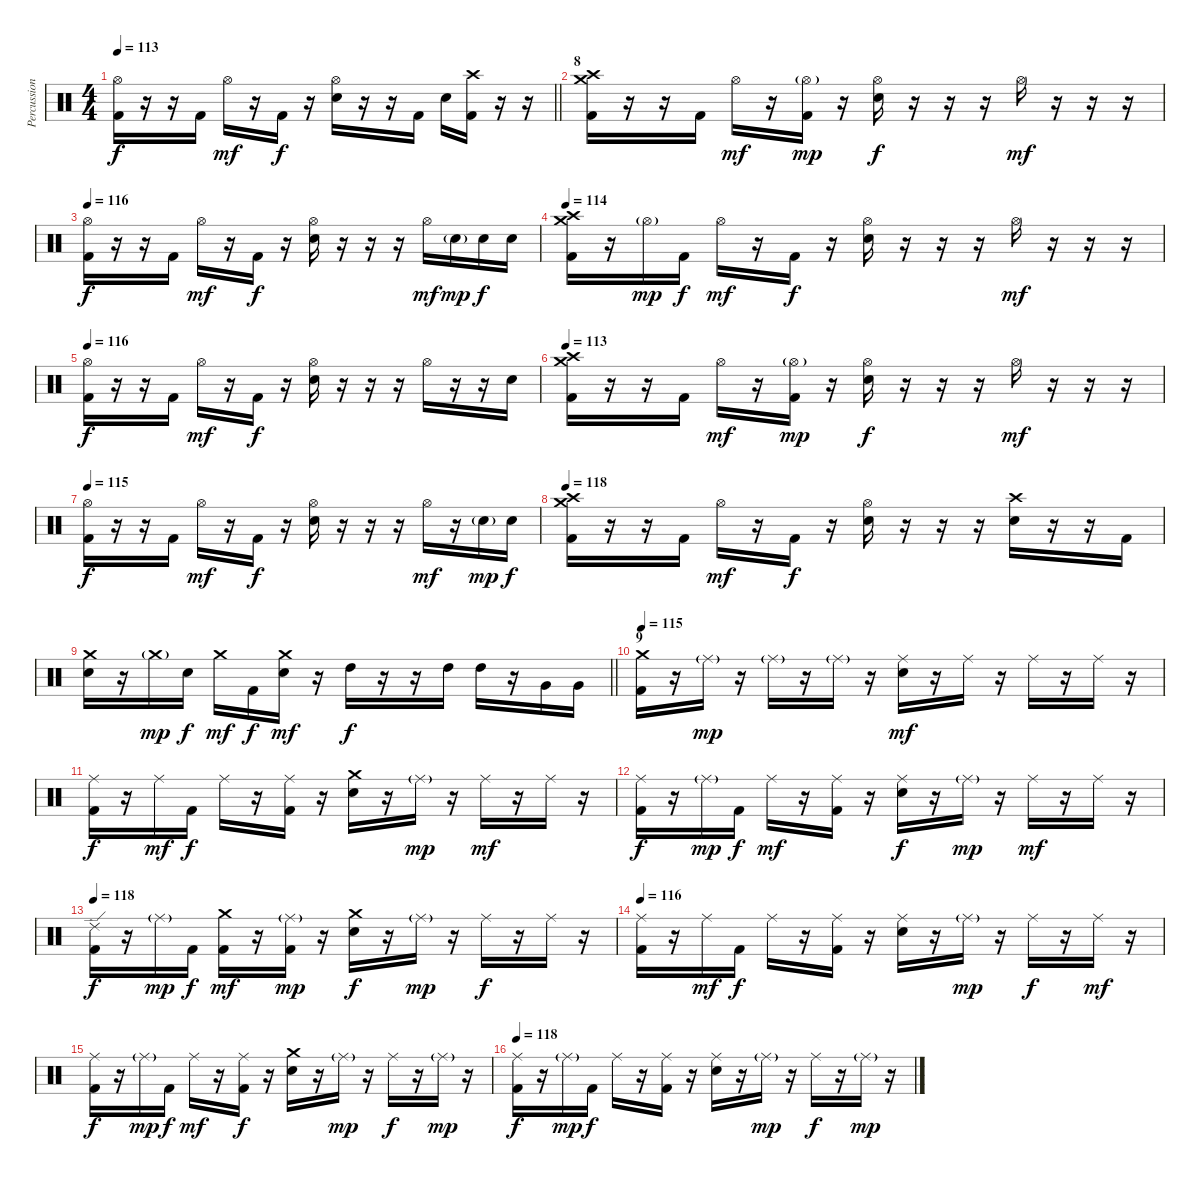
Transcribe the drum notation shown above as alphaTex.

\track ("Percussion" "Percussion") {instrument percussion}
\staff {score}
\articulation defaults
\ts (4 4)
\tempo 113
\clef neutral
\barLineRight lightlight
\ks c
("Hi-Hat (open)" "Kick (hit) 2").16{dy f} r.16 r.16 "Kick (hit) 2".16 "Hi-Hat (open)".16{dy mf} r.16 "Kick (hit) 2".16{dy f} r.16 ("Hi-Hat (open)" "Snare (hit) 2").16 r.16 r.16 "Kick (hit) 2".16 "Snare (hit) 2".16 ("Crash high (hit)" "Kick (hit) 2").16 r.16 r.16 |
\section ("" "8")
("Crash high (hit)" "Crash medium (hit)" "Kick (hit) 2").16 r.16 r.16 "Kick (hit) 2".16 "Hi-Hat (open)".16{dy mf} r.16 ("Hi-Hat (open)"{g} "Kick (hit) 2").16{dy mp} r.16 ("Hi-Hat (open)" "Snare (hit) 2").16{dy f} r.16 r.16 r.16 "Hi-Hat (open)".16{dy mf} r.16 r.16 r.16 |
\tempo 116
("Hi-Hat (open)" "Kick (hit) 2").16{dy f} r.16 r.16 "Kick (hit) 2".16 "Hi-Hat (open)".16{dy mf} r.16 "Kick (hit) 2".16{dy f} r.16 ("Hi-Hat (open)" "Snare (hit) 2").16 r.16 r.16 r.16 "Hi-Hat (open)".16{dy mf} "Snare (hit) 2"{g}.16{dy mp} "Snare (hit) 2".16{dy f} "Snare (hit) 2".16 |
\tempo 114
("Crash high (hit)" "Crash medium (hit)" "Kick (hit) 2").16 r.16 "Hi-Hat (open)"{g}.16{dy mp} "Kick (hit) 2".16{dy f} "Hi-Hat (open)".16{dy mf} r.16 "Kick (hit) 2".16{dy f} r.16 ("Hi-Hat (open)" "Snare (hit) 2").16 r.16 r.16 r.16 "Hi-Hat (open)".16{dy mf} r.16 r.16 r.16 |
\tempo 116
("Hi-Hat (open)" "Kick (hit) 2").16{dy f} r.16 r.16 "Kick (hit) 2".16 "Hi-Hat (open)".16{dy mf} r.16 "Kick (hit) 2".16{dy f} r.16 ("Hi-Hat (open)" "Snare (hit) 2").16 r.16 r.16 r.16 "Hi-Hat (open)".16 r.16 r.16 "Snare (hit) 2".16 |
\tempo 113
("Crash high (hit)" "Crash medium (hit)" "Kick (hit) 2").16 r.16 r.16 "Kick (hit) 2".16 "Hi-Hat (open)".16{dy mf} r.16 ("Hi-Hat (open)"{g} "Kick (hit) 2").16{dy mp} r.16 ("Hi-Hat (open)" "Snare (hit) 2").16{dy f} r.16 r.16 r.16 "Hi-Hat (open)".16{dy mf} r.16 r.16 r.16 |
\tempo 115
("Hi-Hat (open)" "Kick (hit) 2").16{dy f} r.16 r.16 "Kick (hit) 2".16 "Hi-Hat (open)".16{dy mf} r.16 "Kick (hit) 2".16{dy f} r.16 ("Hi-Hat (open)" "Snare (hit) 2").16 r.16 r.16 r.16 "Hi-Hat (open)".16{dy mf} r.16 "Snare (hit) 2"{g}.16{dy mp} "Snare (hit) 2".16{dy f} |
\tempo 118
("Crash high (hit)" "Crash medium (hit)" "Kick (hit) 2").16 r.16 r.16 "Kick (hit) 2".16 "Hi-Hat (open)".16{dy mf} r.16 "Kick (hit) 2".16{dy f} r.16 ("Hi-Hat (open)" "Snare (hit) 2").16 r.16 r.16 r.16 ("Crash high (hit)" "Snare (hit) 2").16 r.16 r.16 "Kick (hit) 2".16 |
\barLineRight lightlight
("Crash medium (hit)" "Snare (hit) 2").16 r.16 "Crash medium (hit)"{g}.16{dy mp} "Snare (hit) 2".16{dy f} "Crash medium (hit)".16{dy mf} "Kick (hit) 2".16{dy f} ("Crash medium (hit)" "Snare (hit) 2").16{dy mf} r.16 "High Tom (hit)".16{dy f} r.16 r.16 "High Tom (hit)".16 "High Tom (hit)".16 r.16 "Very Low Tom (hit)".16 "Very Low Tom (hit)".16 |
\section ("" "9")
\tempo 115
("Crash medium (hit)" "Kick (hit) 2").16 r.16 "Ride (middle)"{g}.16{dy mp} r.16 "Ride (middle)"{g}.16 r.16 "Ride (middle)"{g}.16 r.16 ("Ride (middle)" "Snare (hit) 2").16{dy mf} r.16 "Ride (middle)".16 r.16 "Ride (middle)".16 r.16 "Ride (middle)".16 r.16 |
("Ride (middle)" "Kick (hit) 2").16{dy f} r.16 "Ride (middle)".16{dy mf} "Kick (hit) 2".16{dy f} "Ride (middle)".16 r.16 ("Ride (middle)" "Kick (hit) 2").16 r.16 ("Crash medium (hit)" "Snare (hit) 2").16 r.16 "Ride (middle)"{g}.16{dy mp} r.16 "Ride (middle)".16{dy mf} r.16 "Ride (middle)".16 r.16 |
("Ride (middle)" "Kick (hit) 2").16{dy f} r.16 "Ride (middle)"{g}.16{dy mp} "Kick (hit) 2".16{dy f} "Ride (middle)".16{dy mf} r.16 ("Ride (middle)" "Kick (hit) 2").16 r.16 ("Ride (middle)" "Snare (hit) 2").16{dy f} r.16 "Ride (middle)"{g}.16{dy mp} r.16 "Ride (middle)".16{dy mf} r.16 "Ride (middle)".16 r.16 |
\tempo 118
("Ride (edge) 2" "Kick (hit) 2").16{dy f} r.16 "Ride (middle)"{g}.16{dy mp} "Kick (hit) 2".16{dy f} ("Crash medium (hit)" "Kick (hit) 2").16{dy mf} r.16 ("Ride (middle)"{g} "Kick (hit) 2").16{dy mp} r.16 ("Crash medium (hit)" "Snare (hit) 2").16{dy f} r.16 "Ride (middle)"{g}.16{dy mp} r.16 "Ride (middle)".16{dy f} r.16 "Ride (middle)".16 r.16 |
\tempo 116
("Ride (middle)" "Kick (hit) 2").16 r.16 "Ride (middle)".16{dy mf} "Kick (hit) 2".16{dy f} "Ride (middle)".16 r.16 ("Ride (middle)" "Kick (hit) 2").16 r.16 ("Ride (middle)" "Snare (hit) 2").16 r.16 "Ride (middle)"{g}.16{dy mp} r.16 "Ride (middle)".16{dy f} r.16 "Ride (middle)".16{dy mf} r.16 |
("Ride (middle)" "Kick (hit) 2").16{dy f} r.16 "Ride (middle)"{g}.16{dy mp} "Kick (hit) 2".16{dy f} "Ride (middle)".16{dy mf} r.16 ("Ride (middle)" "Kick (hit) 2").16{dy f} r.16 ("Crash medium (hit)" "Snare (hit) 2").16 r.16 "Ride (middle)"{g}.16{dy mp} r.16 "Ride (middle)".16{dy f} r.16 "Ride (middle)"{g}.16{dy mp} r.16 |
\tempo 118
("Ride (middle)" "Kick (hit) 2").16{dy f} r.16 "Ride (middle)"{g}.16{dy mp} "Kick (hit) 2".16{dy f} "Ride (middle)".16 r.16 ("Ride (middle)" "Kick (hit) 2").16 r.16 ("Ride (middle)" "Snare (hit) 2").16 r.16 "Ride (middle)"{g}.16{dy mp} r.16 "Ride (middle)".16{dy f} r.16 "Ride (middle)"{g}.16{dy mp} r.16
